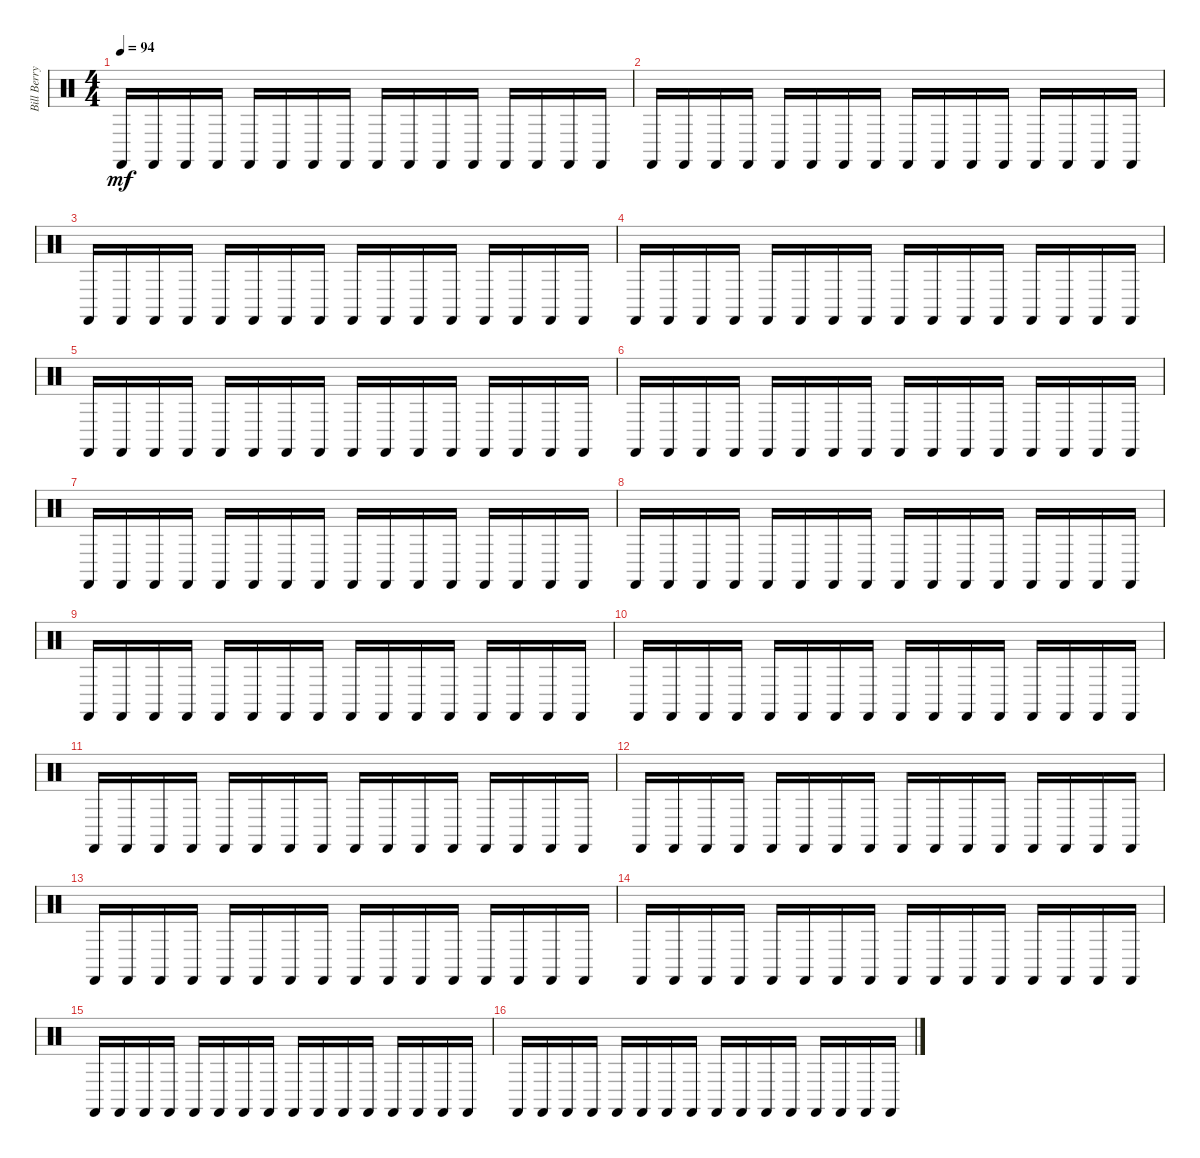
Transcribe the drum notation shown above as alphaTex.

\track ("Bill Berry - Percussion" "Bill Berry") {instrument percussion}
\staff {score}
\articulation defaults
\ts (4 4)
\tempo 94
\clef neutral
\ks c "Castanets (hit)".16{dy mf} "Castanets (hit)".16 "Castanets (hit)".16 "Castanets (hit)".16 "Castanets (hit)".16 "Castanets (hit)".16 "Castanets (hit)".16 "Castanets (hit)".16 "Castanets (hit)".16 "Castanets (hit)".16 "Castanets (hit)".16 "Castanets (hit)".16 "Castanets (hit)".16 "Castanets (hit)".16 "Castanets (hit)".16 "Castanets (hit)".16
|
"Castanets (hit)".16 "Castanets (hit)".16 "Castanets (hit)".16 "Castanets (hit)".16 "Castanets (hit)".16 "Castanets (hit)".16 "Castanets (hit)".16 "Castanets (hit)".16 "Castanets (hit)".16 "Castanets (hit)".16 "Castanets (hit)".16 "Castanets (hit)".16 "Castanets (hit)".16 "Castanets (hit)".16 "Castanets (hit)".16 "Castanets (hit)".16 |
"Castanets (hit)".16 "Castanets (hit)".16 "Castanets (hit)".16 "Castanets (hit)".16 "Castanets (hit)".16 "Castanets (hit)".16 "Castanets (hit)".16 "Castanets (hit)".16 "Castanets (hit)".16 "Castanets (hit)".16 "Castanets (hit)".16 "Castanets (hit)".16 "Castanets (hit)".16 "Castanets (hit)".16 "Castanets (hit)".16 "Castanets (hit)".16 |
"Castanets (hit)".16 "Castanets (hit)".16 "Castanets (hit)".16 "Castanets (hit)".16 "Castanets (hit)".16 "Castanets (hit)".16 "Castanets (hit)".16 "Castanets (hit)".16 "Castanets (hit)".16 "Castanets (hit)".16 "Castanets (hit)".16 "Castanets (hit)".16 "Castanets (hit)".16 "Castanets (hit)".16 "Castanets (hit)".16 "Castanets (hit)".16 |
"Castanets (hit)".16 "Castanets (hit)".16 "Castanets (hit)".16 "Castanets (hit)".16 "Castanets (hit)".16 "Castanets (hit)".16 "Castanets (hit)".16 "Castanets (hit)".16 "Castanets (hit)".16 "Castanets (hit)".16 "Castanets (hit)".16 "Castanets (hit)".16 "Castanets (hit)".16 "Castanets (hit)".16 "Castanets (hit)".16 "Castanets (hit)".16 |
"Castanets (hit)".16 "Castanets (hit)".16 "Castanets (hit)".16 "Castanets (hit)".16 "Castanets (hit)".16 "Castanets (hit)".16 "Castanets (hit)".16 "Castanets (hit)".16 "Castanets (hit)".16 "Castanets (hit)".16 "Castanets (hit)".16 "Castanets (hit)".16 "Castanets (hit)".16 "Castanets (hit)".16 "Castanets (hit)".16 "Castanets (hit)".16 |
"Castanets (hit)".16 "Castanets (hit)".16 "Castanets (hit)".16 "Castanets (hit)".16 "Castanets (hit)".16 "Castanets (hit)".16 "Castanets (hit)".16 "Castanets (hit)".16 "Castanets (hit)".16 "Castanets (hit)".16 "Castanets (hit)".16 "Castanets (hit)".16 "Castanets (hit)".16 "Castanets (hit)".16 "Castanets (hit)".16 "Castanets (hit)".16 |
"Castanets (hit)".16 "Castanets (hit)".16 "Castanets (hit)".16 "Castanets (hit)".16 "Castanets (hit)".16 "Castanets (hit)".16 "Castanets (hit)".16 "Castanets (hit)".16 "Castanets (hit)".16 "Castanets (hit)".16 "Castanets (hit)".16 "Castanets (hit)".16 "Castanets (hit)".16 "Castanets (hit)".16 "Castanets (hit)".16 "Castanets (hit)".16 |
"Castanets (hit)".16 "Castanets (hit)".16 "Castanets (hit)".16 "Castanets (hit)".16 "Castanets (hit)".16 "Castanets (hit)".16 "Castanets (hit)".16 "Castanets (hit)".16 "Castanets (hit)".16 "Castanets (hit)".16 "Castanets (hit)".16 "Castanets (hit)".16 "Castanets (hit)".16 "Castanets (hit)".16 "Castanets (hit)".16 "Castanets (hit)".16 |
"Castanets (hit)".16 "Castanets (hit)".16 "Castanets (hit)".16 "Castanets (hit)".16 "Castanets (hit)".16 "Castanets (hit)".16 "Castanets (hit)".16 "Castanets (hit)".16 "Castanets (hit)".16 "Castanets (hit)".16 "Castanets (hit)".16 "Castanets (hit)".16 "Castanets (hit)".16 "Castanets (hit)".16 "Castanets (hit)".16 "Castanets (hit)".16 |
"Castanets (hit)".16 "Castanets (hit)".16 "Castanets (hit)".16 "Castanets (hit)".16 "Castanets (hit)".16 "Castanets (hit)".16 "Castanets (hit)".16 "Castanets (hit)".16 "Castanets (hit)".16 "Castanets (hit)".16 "Castanets (hit)".16 "Castanets (hit)".16 "Castanets (hit)".16 "Castanets (hit)".16 "Castanets (hit)".16 "Castanets (hit)".16 |
"Castanets (hit)".16 "Castanets (hit)".16 "Castanets (hit)".16 "Castanets (hit)".16 "Castanets (hit)".16 "Castanets (hit)".16 "Castanets (hit)".16 "Castanets (hit)".16 "Castanets (hit)".16 "Castanets (hit)".16 "Castanets (hit)".16 "Castanets (hit)".16 "Castanets (hit)".16 "Castanets (hit)".16 "Castanets (hit)".16 "Castanets (hit)".16 |
"Castanets (hit)".16 "Castanets (hit)".16 "Castanets (hit)".16 "Castanets (hit)".16 "Castanets (hit)".16 "Castanets (hit)".16 "Castanets (hit)".16 "Castanets (hit)".16 "Castanets (hit)".16 "Castanets (hit)".16 "Castanets (hit)".16 "Castanets (hit)".16 "Castanets (hit)".16 "Castanets (hit)".16 "Castanets (hit)".16 "Castanets (hit)".16 |
"Castanets (hit)".16 "Castanets (hit)".16 "Castanets (hit)".16 "Castanets (hit)".16 "Castanets (hit)".16 "Castanets (hit)".16 "Castanets (hit)".16 "Castanets (hit)".16 "Castanets (hit)".16 "Castanets (hit)".16 "Castanets (hit)".16 "Castanets (hit)".16 "Castanets (hit)".16 "Castanets (hit)".16 "Castanets (hit)".16 "Castanets (hit)".16 |
"Castanets (hit)".16 "Castanets (hit)".16 "Castanets (hit)".16 "Castanets (hit)".16 "Castanets (hit)".16 "Castanets (hit)".16 "Castanets (hit)".16 "Castanets (hit)".16 "Castanets (hit)".16 "Castanets (hit)".16 "Castanets (hit)".16 "Castanets (hit)".16 "Castanets (hit)".16 "Castanets (hit)".16 "Castanets (hit)".16 "Castanets (hit)".16 |
"Castanets (hit)".16 "Castanets (hit)".16 "Castanets (hit)".16 "Castanets (hit)".16 "Castanets (hit)".16 "Castanets (hit)".16 "Castanets (hit)".16 "Castanets (hit)".16 "Castanets (hit)".16 "Castanets (hit)".16 "Castanets (hit)".16 "Castanets (hit)".16 "Castanets (hit)".16 "Castanets (hit)".16 "Castanets (hit)".16 "Castanets (hit)".16
